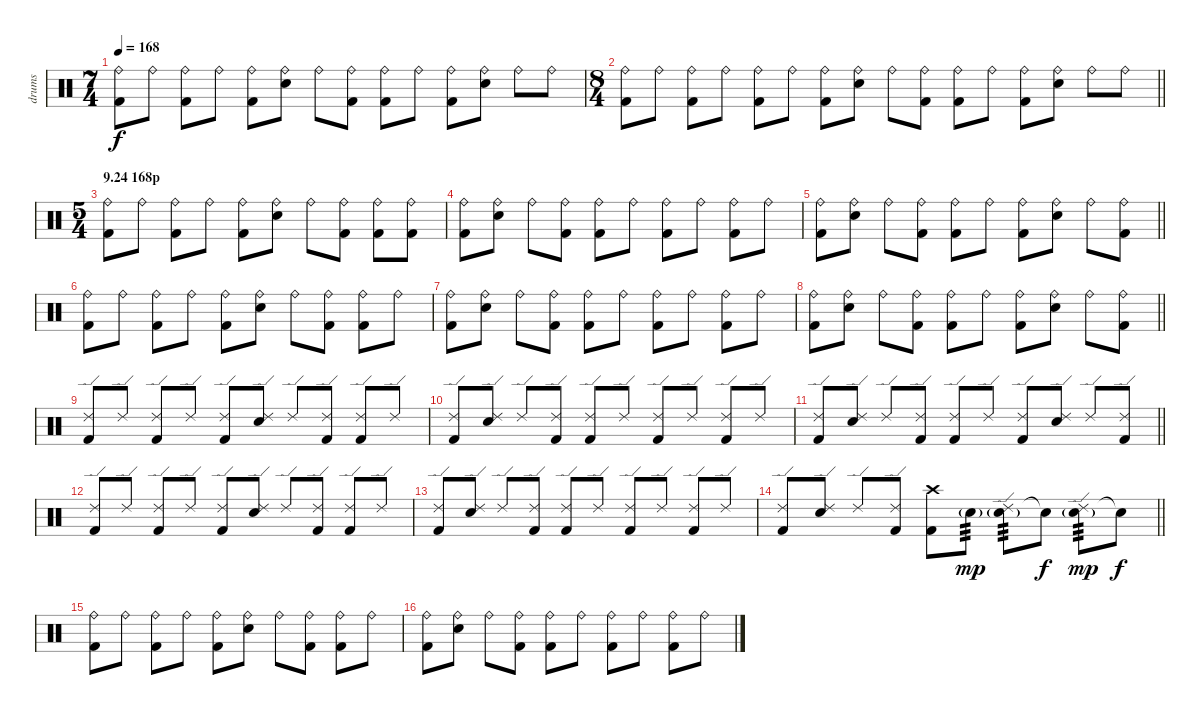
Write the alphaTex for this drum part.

\track ("drums" "drums") {instrument percussion}
\staff {score}
\articulation defaults
\ts (7 4)
\tempo 168
\clef neutral
\ks c
("Ride (bell)" "Kick (hit) 2").8{dy f} "Ride (bell)".8 ("Ride (bell)" "Kick (hit) 2").8 "Ride (bell)".8 ("Ride (bell)" "Kick (hit) 2").8 ("Ride (bell)" "Electric Snare (hit)").8 "Ride (bell)".8 ("Ride (bell)" "Kick (hit) 2").8 ("Ride (bell)" "Kick (hit) 2").8 "Ride (bell)".8 ("Ride (bell)" "Kick (hit) 2").8 ("Ride (bell)" "Electric Snare (hit)").8 "Ride (bell)".8 "Ride (bell)".8 |
\ts (8 4)
\barLineRight lightlight
("Ride (bell)" "Kick (hit) 2").8 "Ride (bell)".8 ("Ride (bell)" "Kick (hit) 2").8 "Ride (bell)".8 ("Ride (bell)" "Kick (hit) 2").8 "Ride (bell)".8 ("Ride (bell)" "Kick (hit) 2").8 ("Ride (bell)" "Electric Snare (hit)").8 "Ride (bell)".8 ("Ride (bell)" "Kick (hit) 2").8 ("Ride (bell)" "Kick (hit) 2").8 "Ride (bell)".8 ("Ride (bell)" "Kick (hit) 2").8 ("Ride (bell)" "Electric Snare (hit)").8 "Ride (bell)".8 "Ride (bell)".8 |
\ts (5 4)
\section ("" "9.24 168p")
("Ride (bell)" "Kick (hit) 2").8 "Ride (bell)".8 ("Ride (bell)" "Kick (hit) 2").8 "Ride (bell)".8 ("Ride (bell)" "Kick (hit) 2").8 ("Ride (bell)" "Electric Snare (hit)").8 "Ride (bell)".8 ("Ride (bell)" "Kick (hit) 2").8 ("Ride (bell)" "Kick (hit) 2").8 ("Ride (bell)" "Kick (hit) 2").8 |
("Ride (bell)" "Kick (hit) 2").8 ("Ride (bell)" "Electric Snare (hit)").8 "Ride (bell)".8 ("Ride (bell)" "Kick (hit) 2").8 ("Ride (bell)" "Kick (hit) 2").8 "Ride (bell)".8 ("Ride (bell)" "Kick (hit) 2").8 "Ride (bell)".8 ("Ride (bell)" "Kick (hit) 2").8 "Ride (bell)".8 |
\barLineRight lightlight
("Ride (bell)" "Kick (hit) 2").8 ("Ride (bell)" "Electric Snare (hit)").8 "Ride (bell)".8 ("Ride (bell)" "Kick (hit) 2").8 ("Ride (bell)" "Kick (hit) 2").8 "Ride (bell)".8 ("Ride (bell)" "Kick (hit) 2").8 ("Ride (bell)" "Electric Snare (hit)").8 "Ride (bell)".8 ("Ride (bell)" "Kick (hit) 2").8 |
("Ride (bell)" "Kick (hit) 2").8 "Ride (bell)".8 ("Ride (bell)" "Kick (hit) 2").8 "Ride (bell)".8 ("Ride (bell)" "Kick (hit) 2").8 ("Ride (bell)" "Electric Snare (hit)").8 "Ride (bell)".8 ("Ride (bell)" "Kick (hit) 2").8 ("Ride (bell)" "Kick (hit) 2").8 "Ride (bell)".8 |
("Ride (bell)" "Kick (hit) 2").8 ("Ride (bell)" "Electric Snare (hit)").8 "Ride (bell)".8 ("Ride (bell)" "Kick (hit) 2").8 ("Ride (bell)" "Kick (hit) 2").8 "Ride (bell)".8 ("Ride (bell)" "Kick (hit) 2").8 "Ride (bell)".8 ("Ride (bell)" "Kick (hit) 2").8 "Ride (bell)".8 |
\barLineRight lightlight
("Ride (bell)" "Kick (hit) 2").8 ("Ride (bell)" "Electric Snare (hit)").8 "Ride (bell)".8 ("Ride (bell)" "Kick (hit) 2").8 ("Ride (bell)" "Kick (hit) 2").8 "Ride (bell)".8 ("Ride (bell)" "Kick (hit) 2").8 ("Ride (bell)" "Electric Snare (hit)").8 "Ride (bell)".8 ("Ride (bell)" "Kick (hit) 2").8 |
("Ride (edge) 2" "Kick (hit) 2").8 "Ride (edge) 2".8 ("Ride (edge) 2" "Kick (hit) 2").8 "Ride (edge) 2".8 ("Ride (edge) 2" "Kick (hit) 2").8 ("Ride (edge) 2" "Electric Snare (hit)").8 "Ride (edge) 2".8 ("Ride (edge) 2" "Kick (hit) 2").8 ("Ride (edge) 2" "Kick (hit) 2").8 "Ride (edge) 2".8 |
("Ride (edge) 2" "Kick (hit) 2").8 ("Ride (edge) 2" "Electric Snare (hit)").8 "Ride (edge) 2".8 ("Ride (edge) 2" "Kick (hit) 2").8 ("Ride (edge) 2" "Kick (hit) 2").8 "Ride (edge) 2".8 ("Ride (edge) 2" "Kick (hit) 2").8 "Ride (edge) 2".8 ("Ride (edge) 2" "Kick (hit) 2").8 "Ride (edge) 2".8 |
\barLineRight lightlight
("Ride (edge) 2" "Kick (hit) 2").8 ("Ride (edge) 2" "Electric Snare (hit)").8 "Ride (edge) 2".8 ("Ride (edge) 2" "Kick (hit) 2").8 ("Ride (edge) 2" "Kick (hit) 2").8 "Ride (edge) 2".8 ("Ride (edge) 2" "Kick (hit) 2").8 ("Ride (edge) 2" "Electric Snare (hit)").8 "Ride (edge) 2".8 ("Ride (edge) 2" "Kick (hit) 2").8 |
("Ride (edge) 2" "Kick (hit) 2").8 "Ride (edge) 2".8 ("Ride (edge) 2" "Kick (hit) 2").8 "Ride (edge) 2".8 ("Ride (edge) 2" "Kick (hit) 2").8 ("Ride (edge) 2" "Electric Snare (hit)").8 "Ride (edge) 2".8 ("Ride (edge) 2" "Kick (hit) 2").8 ("Ride (edge) 2" "Kick (hit) 2").8 "Ride (edge) 2".8 |
("Ride (edge) 2" "Kick (hit) 2").8 ("Ride (edge) 2" "Electric Snare (hit)").8 "Ride (edge) 2".8 ("Ride (edge) 2" "Kick (hit) 2").8 ("Ride (edge) 2" "Kick (hit) 2").8 "Ride (edge) 2".8 ("Ride (edge) 2" "Kick (hit) 2").8 "Ride (edge) 2".8 ("Ride (edge) 2" "Kick (hit) 2").8 "Ride (edge) 2".8 |
\barLineRight lightlight
("Ride (edge) 2" "Kick (hit) 2").8 ("Ride (edge) 2" "Electric Snare (hit)").8 "Ride (edge) 2".8 ("Ride (edge) 2" "Kick (hit) 2").8 ("Crash high (hit)" "Kick (hit) 2").8 "Electric Snare (hit)"{g}.8{tp 3 dy mp} ("Ride (edge) 2" "Electric Snare (hit)"{g}).8{tp 3} "Snare (hit)"{t}.8{dy f} ("Ride (edge) 2" "Electric Snare (hit)"{g}).8{tp 3 dy mp} "Snare (hit)"{t}.8{dy f} |
("Ride (bell)" "Kick (hit) 2").8 "Ride (bell)".8 ("Ride (bell)" "Kick (hit) 2").8 "Ride (bell)".8 ("Ride (bell)" "Kick (hit) 2").8 ("Ride (bell)" "Electric Snare (hit)").8 "Ride (bell)".8 ("Ride (bell)" "Kick (hit) 2").8 ("Ride (bell)" "Kick (hit) 2").8 "Ride (bell)".8 |
("Ride (bell)" "Kick (hit) 2").8 ("Ride (bell)" "Electric Snare (hit)").8 "Ride (bell)".8 ("Ride (bell)" "Kick (hit) 2").8 ("Ride (bell)" "Kick (hit) 2").8 "Ride (bell)".8 ("Ride (bell)" "Kick (hit) 2").8 "Ride (bell)".8 ("Ride (bell)" "Kick (hit) 2").8 "Ride (bell)".8
